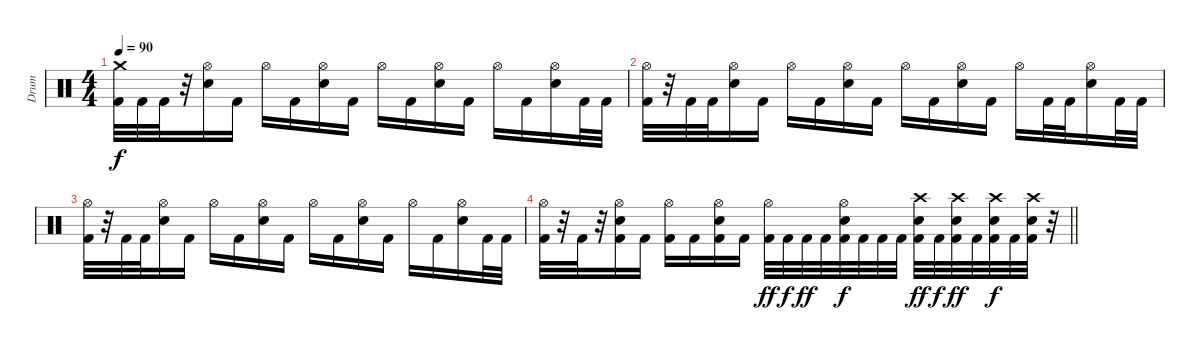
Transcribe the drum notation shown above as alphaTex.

\track ("Drum" "Drum") {instrument percussion}
\staff {score}
\articulation defaults
\ts (4 4)
\tempo 90
\clef neutral
\ks c
("Crash medium (hit)" "Kick (hit) 2").32{dy f} "Kick (hit) 2".32 "Kick (hit) 2".32 r.32 ("Hi-Hat (open)" "Electric Snare (hit)").16 "Kick (hit) 2".16 "Hi-Hat (open)".16 "Kick (hit) 2".16 ("Hi-Hat (open)" "Electric Snare (hit)").16 "Kick (hit) 2".16 "Hi-Hat (open)".16 "Kick (hit) 2".16 ("Hi-Hat (open)" "Electric Snare (hit)").16 "Kick (hit) 2".16 "Hi-Hat (open)".16 "Kick (hit) 2".16 ("Hi-Hat (open)" "Electric Snare (hit)").16 "Kick (hit) 2".32 "Kick (hit) 2".32 |
("Hi-Hat (open)" "Kick (hit) 2").32 r.32 "Kick (hit) 2".32 "Kick (hit) 2".32 ("Hi-Hat (open)" "Electric Snare (hit)").16 "Kick (hit) 2".16 "Hi-Hat (open)".16 "Kick (hit) 2".16 ("Hi-Hat (open)" "Electric Snare (hit)").16 "Kick (hit) 2".16 "Hi-Hat (open)".16 "Kick (hit) 2".16 ("Hi-Hat (open)" "Electric Snare (hit)").16 "Kick (hit) 2".16 "Hi-Hat (open)".16 "Kick (hit) 2".32 "Kick (hit) 2".32 ("Hi-Hat (open)" "Electric Snare (hit)").16 "Kick (hit) 2".32 "Kick (hit) 2".32 |
("Hi-Hat (open)" "Kick (hit) 2").32 r.32 "Kick (hit) 2".32 "Kick (hit) 2".32 ("Hi-Hat (open)" "Electric Snare (hit)").16 "Kick (hit) 2".16 "Hi-Hat (open)".16 "Kick (hit) 2".16 ("Hi-Hat (open)" "Electric Snare (hit)").16 "Kick (hit) 2".16 "Hi-Hat (open)".16 "Kick (hit) 2".16 ("Hi-Hat (open)" "Electric Snare (hit)").16 "Kick (hit) 2".16 "Hi-Hat (open)".16 "Kick (hit) 2".16 ("Hi-Hat (open)" "Electric Snare (hit)").16 "Kick (hit) 2".32 "Kick (hit) 2".32 |
\barLineRight lightlight
("Hi-Hat (open)" "Kick (hit) 2").32 r.32 "Kick (hit) 2".32 r.32 ("Hi-Hat (open)" "Electric Snare (hit)" "Kick (hit) 2").16 "Kick (hit) 2".16 ("Hi-Hat (open)" "Kick (hit) 2").16 "Kick (hit) 2".16 ("Hi-Hat (open)" "Electric Snare (hit)" "Kick (hit) 2").16 "Kick (hit) 2".16 ("Hi-Hat (open)" "Kick (hit) 2").32{dy ff} "Kick (hit) 2".32{dy f} "Kick (hit) 2".32{dy ff} "Kick (hit) 2".32 ("Hi-Hat (open)" "Electric Snare (hit)" "Kick (hit) 2").32{dy f} "Kick (hit) 2".32 "Kick (hit) 2".32 "Kick (hit) 2".32 ("Crash high (hit)" "Electric Snare (hit)" "Kick (hit) 2").32{dy ff} "Kick (hit) 2".32{dy f} ("Crash high (hit)" "Electric Snare (hit)" "Kick (hit) 2").32{dy ff} "Kick (hit) 2".32 ("Crash high (hit)" "Electric Snare (hit)" "Kick (hit) 2").32{dy f} "Kick (hit) 2".32 ("Crash high (hit)" "Electric Snare (hit)" "Kick (hit) 2").32 r.32
